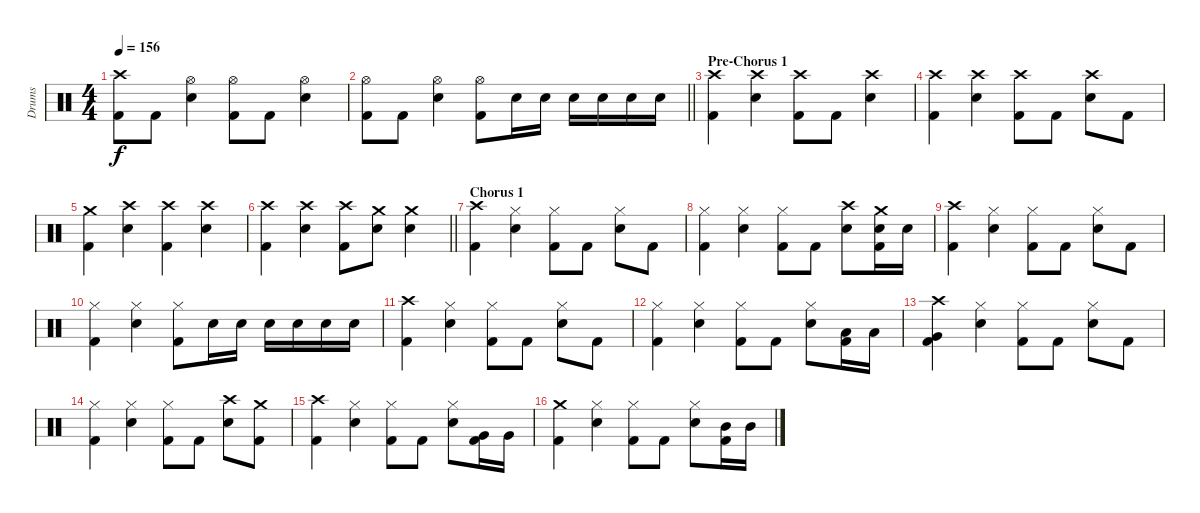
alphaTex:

\track ("Drums" "Drums") {instrument percussion}
\staff {score}
\articulation defaults
\ts (4 4)
\tempo 156
\clef neutral
\ks c
("Crash high (hit)" "Kick (hit) 2").8{dy f} "Kick (hit) 2".8 ("Hi-Hat (open)" "Snare (hit) 2").4 ("Hi-Hat (open)" "Kick (hit) 2").8 "Kick (hit) 2".8 ("Hi-Hat (open)" "Snare (hit) 2").4 |
\barLineRight lightlight
("Hi-Hat (open)" "Kick (hit) 2").8 "Kick (hit) 2".8 ("Hi-Hat (open)" "Snare (hit) 2").4 ("Hi-Hat (open)" "Kick (hit) 2").8 "Snare (hit) 2".16 "Snare (hit) 2".16 "Snare (hit) 2".16 "Snare (hit) 2".16 "Snare (hit) 2".16 "Snare (hit) 2".16 |
\section ("" "Pre-Chorus 1")
("Crash high (hit)" "Kick (hit) 2").4 ("Crash high (hit)" "Snare (hit) 2").4 ("Crash high (hit)" "Kick (hit) 2").8 "Kick (hit) 2".8 ("Crash high (hit)" "Snare (hit) 2").4 |
("Crash high (hit)" "Kick (hit) 2").4 ("Crash high (hit)" "Snare (hit) 2").4 ("Crash high (hit)" "Kick (hit) 2").8 "Kick (hit) 2".8 ("Crash high (hit)" "Snare (hit) 2").8 "Kick (hit) 2".8 |
("Crash medium (hit)" "Kick (hit) 2").4 ("Crash high (hit)" "Snare (hit) 2").4 ("Crash high (hit)" "Kick (hit) 2").4 ("Crash high (hit)" "Snare (hit) 2").4 |
\barLineRight lightlight
("Crash high (hit)" "Kick (hit) 2").4 ("Crash high (hit)" "Snare (hit) 2").4 ("Crash high (hit)" "Kick (hit) 2").8 ("Crash medium (hit)" "Snare (hit) 2").8 ("Crash medium (hit)" "Snare (hit) 2").4 |
\section ("" "Chorus 1")
("Crash high (hit)" "Kick (hit) 2").4 ("Hi-Hat (closed)" "Snare (hit) 2").4 ("Hi-Hat (closed)" "Kick (hit) 2").8 "Kick (hit) 2".8 ("Hi-Hat (closed)" "Snare (hit) 2").8 "Kick (hit) 2".8 |
("Hi-Hat (closed)" "Kick (hit) 2").4 ("Hi-Hat (closed)" "Snare (hit) 2").4 ("Hi-Hat (closed)" "Kick (hit) 2").8 "Kick (hit) 2".8 ("Crash high (hit)" "Snare (hit) 2").8 ("Crash medium (hit)" "Snare (hit) 2" "Kick (hit) 2").16 "Snare (hit) 2".16 |
("Crash high (hit)" "Kick (hit) 2").4 ("Hi-Hat (closed)" "Snare (hit) 2").4 ("Hi-Hat (closed)" "Kick (hit) 2").8 "Kick (hit) 2".8 ("Hi-Hat (closed)" "Snare (hit) 2").8 "Kick (hit) 2".8 |
("Hi-Hat (closed)" "Kick (hit) 2").4 ("Hi-Hat (closed)" "Snare (hit) 2").4 ("Hi-Hat (closed)" "Kick (hit) 2").8 "Snare (hit) 2".16 "Snare (hit) 2".16 "Snare (hit) 2".16 "Snare (hit) 2".16 "Snare (hit) 2".16 "Snare (hit) 2".16 |
("Crash high (hit)" "Kick (hit) 2").4 ("Hi-Hat (closed)" "Snare (hit) 2").4 ("Hi-Hat (closed)" "Kick (hit) 2").8 "Kick (hit) 2".8 ("Hi-Hat (closed)" "Snare (hit) 2").8 "Kick (hit) 2".8 |
("Hi-Hat (closed)" "Kick (hit) 2").4 ("Hi-Hat (closed)" "Snare (hit) 2").4 ("Hi-Hat (closed)" "Kick (hit) 2").8 "Kick (hit) 2".8 ("Hi-Hat (closed)" "Snare (hit) 2").8 ("Low Tom (hit)" "Kick (hit) 2").16 "Low Tom (hit)".16 |
("Crash high (hit)" "Very Low Tom (hit)" "Kick (hit) 2").4 ("Hi-Hat (closed)" "Snare (hit) 2").4 ("Hi-Hat (closed)" "Kick (hit) 2").8 "Kick (hit) 2".8 ("Hi-Hat (closed)" "Snare (hit) 2").8 "Kick (hit) 2".8 |
("Hi-Hat (closed)" "Kick (hit) 2").4 ("Hi-Hat (closed)" "Snare (hit) 2").4 ("Hi-Hat (closed)" "Kick (hit) 2").8 "Kick (hit) 2".8 ("Crash high (hit)" "Snare (hit) 2").8 ("Crash medium (hit)" "Kick (hit) 2").8 |
("Crash high (hit)" "Kick (hit) 2").4 ("Hi-Hat (closed)" "Snare (hit) 2").4 ("Hi-Hat (closed)" "Kick (hit) 2").8 "Kick (hit) 2".8 ("Hi-Hat (closed)" "Snare (hit) 2").8 ("Very Low Tom (hit)" "Kick (hit) 2").16 "Very Low Tom (hit)".16 |
("Crash medium (hit)" "Kick (hit) 2").4 ("Hi-Hat (closed)" "Snare (hit) 2").4 ("Hi-Hat (closed)" "Kick (hit) 2").8 "Kick (hit) 2".8 ("Hi-Hat (closed)" "Snare (hit) 2").8 ("Mid Tom (hit)" "Kick (hit) 2").16 "Mid Tom (hit)".16
